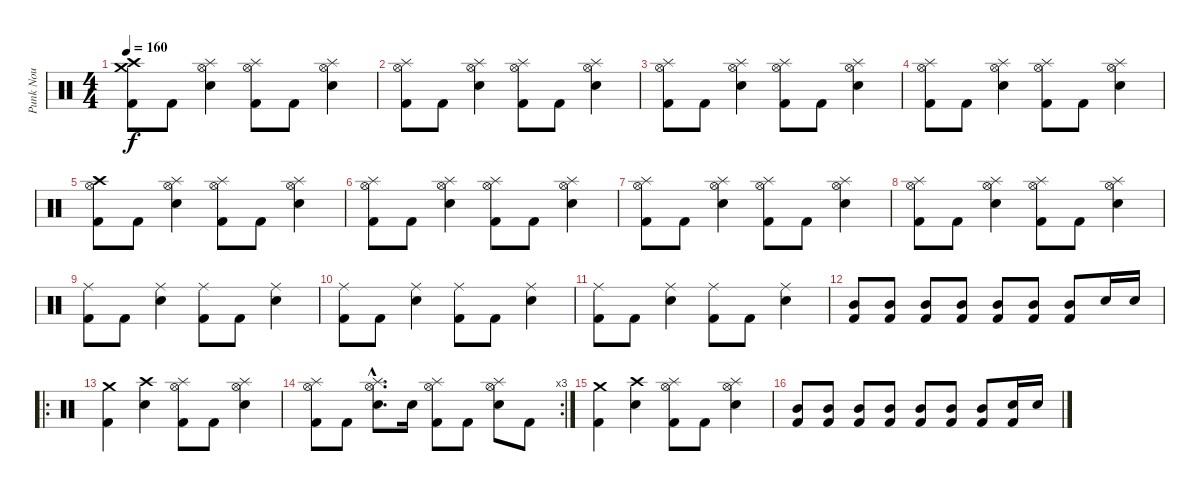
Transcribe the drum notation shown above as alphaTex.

\track ("Punk Nou" "Punk Nou") {instrument percussion}
\staff {score}
\articulation defaults
\ts (4 4)
\tempo 160
\clef neutral
\ks c
("Crash high (hit)" "Crash medium (hit)" "Kick (hit) 2").8{dy f} "Kick (hit) 2".8 ("Splash (hit)" "Hi-Hat (open)" "Electric Snare (hit)").4 ("Splash (hit)" "Hi-Hat (open)" "Kick (hit) 2").8 "Kick (hit) 2".8 ("Splash (hit)" "Hi-Hat (open)" "Electric Snare (hit)").4 |
("Splash (hit)" "Hi-Hat (open)" "Kick (hit) 2").8 "Kick (hit) 2".8 ("Splash (hit)" "Hi-Hat (open)" "Electric Snare (hit)").4 ("Splash (hit)" "Hi-Hat (open)" "Kick (hit) 2").8 "Kick (hit) 2".8 ("Splash (hit)" "Hi-Hat (open)" "Electric Snare (hit)").4 |
("Splash (hit)" "Hi-Hat (open)" "Kick (hit) 2").8 "Kick (hit) 2".8 ("Splash (hit)" "Hi-Hat (open)" "Electric Snare (hit)").4 ("Splash (hit)" "Hi-Hat (open)" "Kick (hit) 2").8 "Kick (hit) 2".8 ("Splash (hit)" "Hi-Hat (open)" "Electric Snare (hit)").4 |
("Splash (hit)" "Hi-Hat (open)" "Kick (hit) 2").8 "Kick (hit) 2".8 ("Splash (hit)" "Hi-Hat (open)" "Electric Snare (hit)").4 ("Splash (hit)" "Hi-Hat (open)" "Kick (hit) 2").8 "Kick (hit) 2".8 ("Splash (hit)" "Hi-Hat (open)" "Electric Snare (hit)").4 |
("Crash high (hit)" "Hi-Hat (open)" "Kick (hit) 2").8 "Kick (hit) 2".8 ("Splash (hit)" "Hi-Hat (open)" "Electric Snare (hit)").4 ("Splash (hit)" "Hi-Hat (open)" "Kick (hit) 2").8 "Kick (hit) 2".8 ("Splash (hit)" "Hi-Hat (open)" "Electric Snare (hit)").4 |
("Splash (hit)" "Hi-Hat (open)" "Kick (hit) 2").8 "Kick (hit) 2".8 ("Splash (hit)" "Hi-Hat (open)" "Electric Snare (hit)").4 ("Splash (hit)" "Hi-Hat (open)" "Kick (hit) 2").8 "Kick (hit) 2".8 ("Splash (hit)" "Hi-Hat (open)" "Electric Snare (hit)").4 |
("Splash (hit)" "Hi-Hat (open)" "Kick (hit) 2").8 "Kick (hit) 2".8 ("Splash (hit)" "Hi-Hat (open)" "Electric Snare (hit)").4 ("Splash (hit)" "Hi-Hat (open)" "Kick (hit) 2").8 "Kick (hit) 2".8 ("Splash (hit)" "Hi-Hat (open)" "Electric Snare (hit)").4 |
("Splash (hit)" "Hi-Hat (open)" "Kick (hit) 2").8 "Kick (hit) 2".8 ("Splash (hit)" "Hi-Hat (open)" "Electric Snare (hit)").4 ("Splash (hit)" "Hi-Hat (open)" "Kick (hit) 2").8 "Kick (hit) 2".8 ("Splash (hit)" "Hi-Hat (open)" "Electric Snare (hit)").4 |
("Ride (middle)" "Kick (hit) 2").8 "Kick (hit) 2".8 ("Ride (middle)" "Electric Snare (hit)").4 ("Ride (middle)" "Kick (hit) 2").8 "Kick (hit) 2".8 ("Ride (middle)" "Electric Snare (hit)").4 |
("Ride (middle)" "Kick (hit) 2").8 "Kick (hit) 2".8 ("Ride (middle)" "Electric Snare (hit)").4 ("Ride (middle)" "Kick (hit) 2").8 "Kick (hit) 2".8 ("Ride (middle)" "Electric Snare (hit)").4 |
("Ride (middle)" "Kick (hit) 2").8 "Kick (hit) 2".8 ("Ride (middle)" "Electric Snare (hit)").4 ("Ride (middle)" "Kick (hit) 2").8 "Kick (hit) 2".8 ("Ride (middle)" "Electric Snare (hit)").4 |
("Mid Tom (hit)" "Kick (hit) 2").8 ("Mid Tom (hit)" "Kick (hit) 2").8 ("Mid Tom (hit)" "Kick (hit) 2").8 ("Mid Tom (hit)" "Kick (hit) 2").8 ("Mid Tom (hit)" "Kick (hit) 2").8 ("Mid Tom (hit)" "Kick (hit) 2").8 ("Mid Tom (hit)" "Kick (hit) 2").8 "Electric Snare (hit)".16 "Electric Snare (hit)".16 |
\ro
("Crash medium (hit)" "Kick (hit) 2").4 ("Crash high (hit)" "Electric Snare (hit)").4 ("Splash (hit)" "Hi-Hat (open)" "Kick (hit) 2").8 "Kick (hit) 2".8 ("Splash (hit)" "Hi-Hat (open)" "Electric Snare (hit)").4 |
\rc 3
("Splash (hit)" "Hi-Hat (open)" "Kick (hit) 2").8 "Kick (hit) 2".8 ("Splash (hit)"{hac} "Hi-Hat (open)"{hac} "Electric Snare (hit)"{hac}).8{d} "Electric Snare (hit)".16 ("Splash (hit)" "Hi-Hat (open)" "Kick (hit) 2").8 "Kick (hit) 2".8 ("Splash (hit)" "Hi-Hat (open)" "Electric Snare (hit)").8 "Kick (hit) 2".8 |
("Crash medium (hit)" "Kick (hit) 2").4 ("Crash high (hit)" "Electric Snare (hit)").4 ("Splash (hit)" "Hi-Hat (open)" "Kick (hit) 2").8 "Kick (hit) 2".8 ("Splash (hit)" "Hi-Hat (open)" "Electric Snare (hit)").4 |
("Mid Tom (hit)" "Kick (hit) 2").8 ("Mid Tom (hit)" "Kick (hit) 2").8 ("Mid Tom (hit)" "Kick (hit) 2").8 ("Mid Tom (hit)" "Kick (hit) 2").8 ("Mid Tom (hit)" "Kick (hit) 2").8 ("Mid Tom (hit)" "Kick (hit) 2").8 ("Mid Tom (hit)" "Kick (hit) 2").8 ("Electric Snare (hit)" "Kick (hit) 2").16 "Electric Snare (hit)".16
